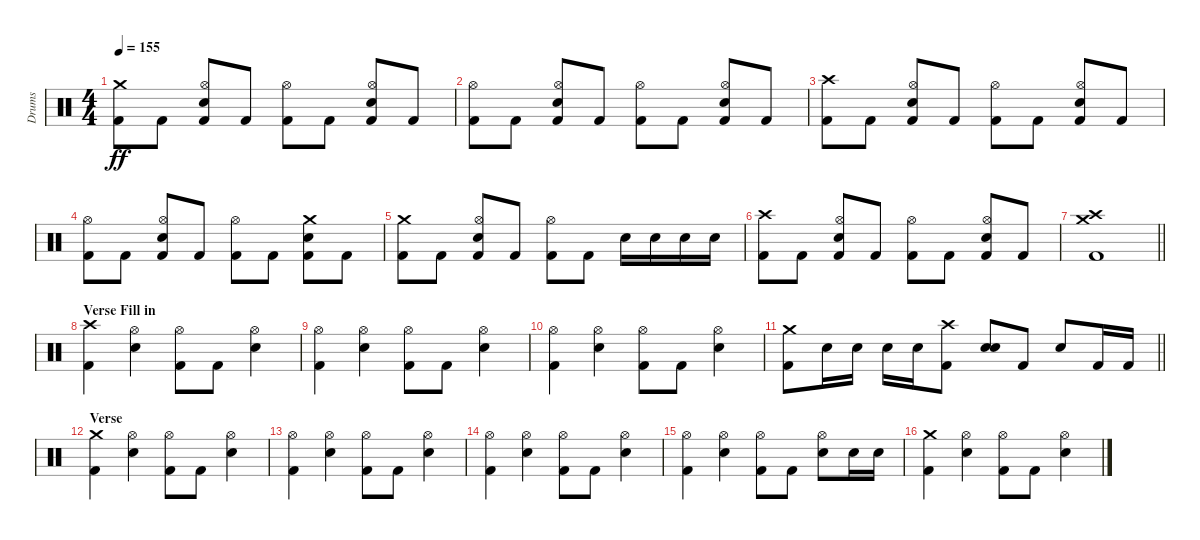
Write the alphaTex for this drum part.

\track ("Drums" "Drums") {solo instrument percussion}
\staff {score}
\articulation defaults
\ts (4 4)
\tempo 155
\clef neutral
\ks c
("Crash medium (hit)" "Kick (hit) 2").8{dy ff} "Kick (hit) 2".8 ("Hi-Hat (open)" "Electric Snare (hit)" "Kick (hit) 2").8 "Kick (hit) 2".8 ("Hi-Hat (open)" "Kick (hit) 2").8 "Kick (hit) 2".8 ("Electric Snare (hit)" "Hi-Hat (open)" "Kick (hit) 2").8 "Kick (hit) 2".8 |
("Hi-Hat (open)" "Kick (hit) 2").8 "Kick (hit) 2".8 ("Hi-Hat (open)" "Electric Snare (hit)" "Kick (hit) 2").8 "Kick (hit) 2".8 ("Hi-Hat (open)" "Kick (hit) 2").8 "Kick (hit) 2".8 ("Electric Snare (hit)" "Hi-Hat (open)" "Kick (hit) 2").8 "Kick (hit) 2".8 |
("Crash high (hit)" "Kick (hit) 2").8 "Kick (hit) 2".8 ("Hi-Hat (open)" "Electric Snare (hit)" "Kick (hit) 2").8 "Kick (hit) 2".8 ("Hi-Hat (open)" "Kick (hit) 2").8 "Kick (hit) 2".8 ("Electric Snare (hit)" "Hi-Hat (open)" "Kick (hit) 2").8 "Kick (hit) 2".8 |
("Hi-Hat (open)" "Kick (hit) 2").8 "Kick (hit) 2".8 ("Hi-Hat (open)" "Electric Snare (hit)" "Kick (hit) 2").8 "Kick (hit) 2".8 ("Hi-Hat (open)" "Kick (hit) 2").8 "Kick (hit) 2".8 ("Electric Snare (hit)" "Crash medium (hit)" "Kick (hit) 2").8 "Kick (hit) 2".8 |
("Crash medium (hit)" "Kick (hit) 2").8 "Kick (hit) 2".8 ("Hi-Hat (open)" "Electric Snare (hit)" "Kick (hit) 2").8 "Kick (hit) 2".8 ("Hi-Hat (open)" "Kick (hit) 2").8 "Kick (hit) 2".8 "Electric Snare (hit)".16 "Electric Snare (hit)".16 "Electric Snare (hit)".16 "Electric Snare (hit)".16 |
("Crash high (hit)" "Kick (hit) 2").8 "Kick (hit) 2".8 ("Electric Snare (hit)" "Hi-Hat (open)" "Kick (hit) 2").8 "Kick (hit) 2".8 ("Hi-Hat (open)" "Kick (hit) 2").8 "Kick (hit) 2".8 ("Electric Snare (hit)" "Hi-Hat (open)" "Kick (hit) 2").8 "Kick (hit) 2".8 |
\barLineRight lightlight
("Crash high (hit)" "Crash medium (hit)" "Kick (hit) 2").1 |
\section ("" "Verse Fill in")
("Crash high (hit)" "Kick (hit) 2").4 ("Hi-Hat (open)" "Electric Snare (hit)").4 ("Hi-Hat (open)" "Kick (hit) 2").8 "Kick (hit) 2".8 ("Hi-Hat (open)" "Electric Snare (hit)").4 |
("Hi-Hat (open)" "Kick (hit) 2").4 ("Hi-Hat (open)" "Electric Snare (hit)").4 ("Hi-Hat (open)" "Kick (hit) 2").8 "Kick (hit) 2".8 ("Hi-Hat (open)" "Electric Snare (hit)").4 |
("Hi-Hat (open)" "Kick (hit) 2").4 ("Hi-Hat (open)" "Electric Snare (hit)").4 ("Hi-Hat (open)" "Kick (hit) 2").8 "Kick (hit) 2".8 ("Hi-Hat (open)" "Electric Snare (hit)").4 |
\barLineRight lightlight
("Crash medium (hit)" "Kick (hit) 2").8 "Electric Snare (hit)".16 "Electric Snare (hit)".16 "Electric Snare (hit)".16 "Electric Snare (hit)".16 ("Crash high (hit)" "Kick (hit) 2").8 ("Electric Snare (hit)" "Electric Snare (hit)").8{bu 480} "Kick (hit) 2".8 "Electric Snare (hit)".8 "Kick (hit) 2".16 "Kick (hit) 2".16 |
\section ("" "Verse")
("Crash medium (hit)" "Kick (hit) 2").4 ("Hi-Hat (open)" "Electric Snare (hit)").4 ("Hi-Hat (open)" "Kick (hit) 2").8 "Kick (hit) 2".8 ("Hi-Hat (open)" "Electric Snare (hit)").4 |
("Hi-Hat (open)" "Kick (hit) 2").4 ("Hi-Hat (open)" "Electric Snare (hit)").4 ("Hi-Hat (open)" "Kick (hit) 2").8 "Kick (hit) 2".8 ("Hi-Hat (open)" "Electric Snare (hit)").4 |
("Hi-Hat (open)" "Kick (hit) 2").4 ("Hi-Hat (open)" "Electric Snare (hit)").4 ("Hi-Hat (open)" "Kick (hit) 2").8 "Kick (hit) 2".8 ("Hi-Hat (open)" "Electric Snare (hit)").4 |
("Hi-Hat (open)" "Kick (hit) 2").4 ("Hi-Hat (open)" "Electric Snare (hit)").4 ("Hi-Hat (open)" "Kick (hit) 2").8 "Kick (hit) 2".8 ("Hi-Hat (open)" "Electric Snare (hit)").8 "Electric Snare (hit)".16 "Electric Snare (hit)".16 |
("Crash medium (hit)" "Kick (hit) 2").4 ("Hi-Hat (open)" "Electric Snare (hit)").4 ("Hi-Hat (open)" "Kick (hit) 2").8 "Kick (hit) 2".8 ("Hi-Hat (open)" "Electric Snare (hit)").4
